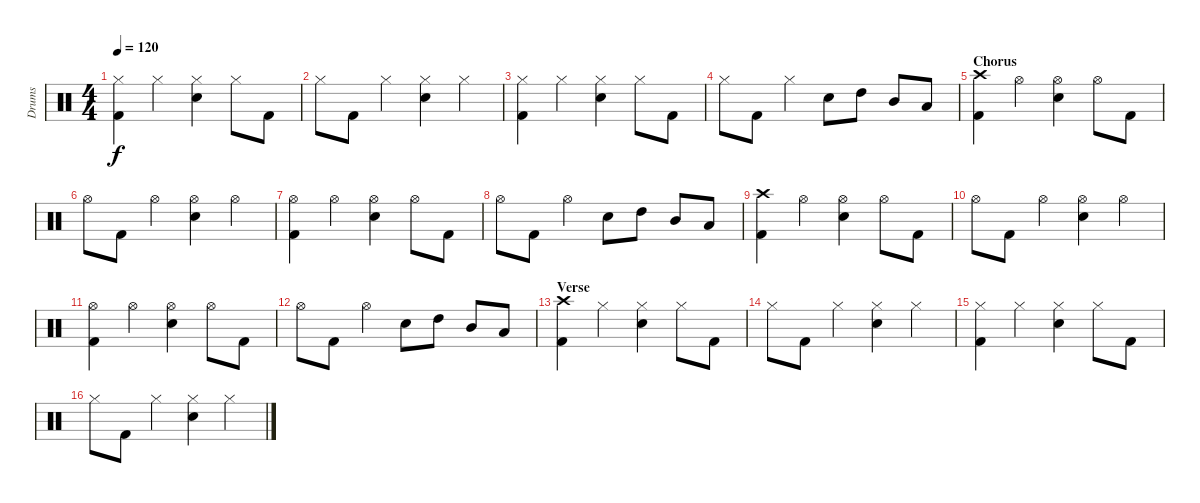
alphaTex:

\track ("Drums" "Drums") {instrument percussion}
\staff {score}
\articulation defaults
\ts (4 4)
\tempo 120
\clef neutral
\ks c
("Hi-Hat (closed)" "Kick (hit) 2").4{dy f} "Hi-Hat (closed)".4 ("Hi-Hat (closed)" "Electric Snare (hit)").4 "Hi-Hat (closed)".8 "Kick (hit) 2".8 |
"Hi-Hat (closed)".8 "Kick (hit) 2".8 "Hi-Hat (closed)".4 ("Hi-Hat (closed)" "Electric Snare (hit)").4 "Hi-Hat (closed)".4 |
("Hi-Hat (closed)" "Kick (hit) 2").4 "Hi-Hat (closed)".4 ("Hi-Hat (closed)" "Electric Snare (hit)").4 "Hi-Hat (closed)".8 "Kick (hit) 2".8 |
"Hi-Hat (closed)".8 "Kick (hit) 2".8 "Hi-Hat (closed)".4 "Electric Snare (hit)".8 "High Tom (hit)".8 "Mid Tom (hit)".8 "Low Tom (hit)".8 |
\section ("" "Chorus")
("Crash high (hit)" "Kick (hit) 2").4 "Hi-Hat (open)".4 ("Hi-Hat (open)" "Electric Snare (hit)").4 "Hi-Hat (open)".8 "Kick (hit) 2".8 |
"Hi-Hat (open)".8 "Kick (hit) 2".8 "Hi-Hat (open)".4 ("Hi-Hat (open)" "Electric Snare (hit)").4 "Hi-Hat (open)".4 |
("Hi-Hat (open)" "Kick (hit) 2").4 "Hi-Hat (open)".4 ("Hi-Hat (open)" "Electric Snare (hit)").4 "Hi-Hat (open)".8 "Kick (hit) 2".8 |
"Hi-Hat (open)".8 "Kick (hit) 2".8 "Hi-Hat (open)".4 "Electric Snare (hit)".8 "High Tom (hit)".8 "Mid Tom (hit)".8 "Low Tom (hit)".8 |
("Crash high (hit)" "Kick (hit) 2").4 "Hi-Hat (open)".4 ("Hi-Hat (open)" "Electric Snare (hit)").4 "Hi-Hat (open)".8 "Kick (hit) 2".8 |
"Hi-Hat (open)".8 "Kick (hit) 2".8 "Hi-Hat (open)".4 ("Hi-Hat (open)" "Electric Snare (hit)").4 "Hi-Hat (open)".4 |
("Hi-Hat (open)" "Kick (hit) 2").4 "Hi-Hat (open)".4 ("Hi-Hat (open)" "Electric Snare (hit)").4 "Hi-Hat (open)".8 "Kick (hit) 2".8 |
"Hi-Hat (open)".8 "Kick (hit) 2".8 "Hi-Hat (open)".4 "Electric Snare (hit)".8 "High Tom (hit)".8 "Mid Tom (hit)".8 "Low Tom (hit)".8 |
\section ("" "Verse")
("Crash high (hit)" "Kick (hit) 2").4 "Hi-Hat (closed)".4 ("Hi-Hat (closed)" "Electric Snare (hit)").4 "Hi-Hat (closed)".8 "Kick (hit) 2".8 |
"Hi-Hat (closed)".8 "Kick (hit) 2".8 "Hi-Hat (closed)".4 ("Hi-Hat (closed)" "Electric Snare (hit)").4 "Hi-Hat (closed)".4 |
("Hi-Hat (closed)" "Kick (hit) 2").4 "Hi-Hat (closed)".4 ("Hi-Hat (closed)" "Electric Snare (hit)").4 "Hi-Hat (closed)".8 "Kick (hit) 2".8 |
"Hi-Hat (closed)".8 "Kick (hit) 2".8 "Hi-Hat (closed)".4 ("Hi-Hat (closed)" "Electric Snare (hit)").4 "Hi-Hat (closed)".4
